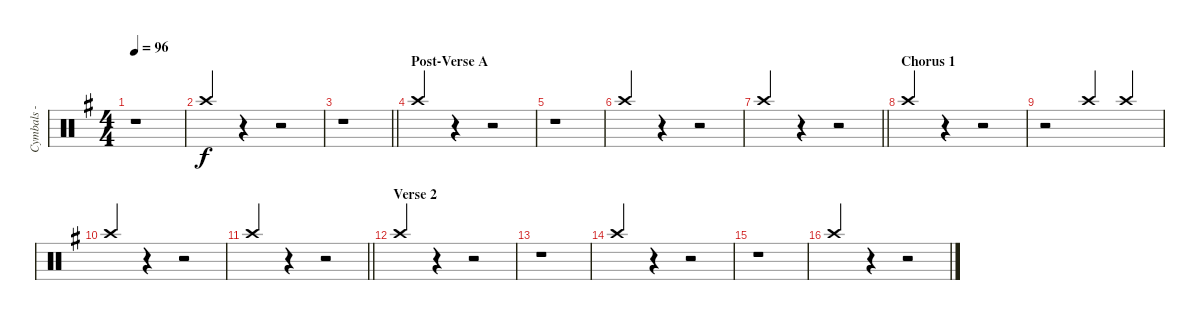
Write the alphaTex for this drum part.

\track ("Cymbals - crash" "Cymbals - ") {instrument percussion}
\staff {score}
\articulation defaults
\ts (4 4)
\tempo 96
\clef neutral
\ks g
r.1{dy f} |
"Crash high (hit)".4{beam Up} r.4 r.2 |
\barLineRight lightlight
r.1 |
\section ("" "Post-Verse A")
"Crash high (hit)".4{beam Up} r.4 r.2 |
r.1 |
"Crash high (hit)".4{beam Up} r.4 r.2 |
\barLineRight lightlight "Crash high (hit)".4{beam Up}
r.4 r.2 |
\section ("" "Chorus 1")
"Crash high (hit)".4{beam Up} r.4 r.2 |
r.2 "Crash high (hit)".4{beam Up} "Crash high (hit)".4{beam Up} |
"Crash high (hit)".4{beam Up} r.4 r.2 |
\barLineRight lightlight "Crash high (hit)".4{beam Up}
r.4 r.2 |
\section ("" "Verse 2")
"Crash high (hit)".4{beam Up} r.4 r.2 |
r.1 |
"Crash high (hit)".4{beam Up} r.4 r.2 |
r.1 |
"Crash high (hit)".4{beam Up} r.4 r.2
